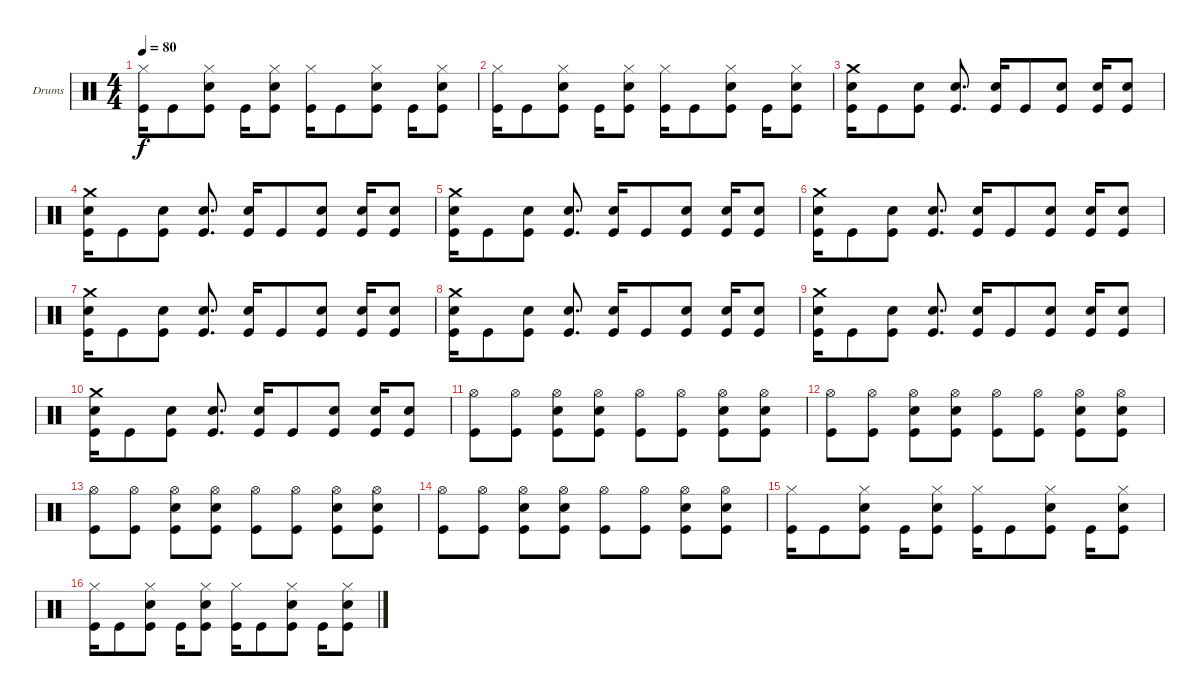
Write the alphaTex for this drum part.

\defaultSystemsLayout 4
\bracketExtendMode groupsimilarinstruments
\firstSystemTrackNameOrientation horizontal
\otherSystemsTrackNameOrientation horizontal
\track ("Drumkit" "Drums") {instrument percussion}
\staff {score}
\articulation defaults
\ts (4 4)
\tempo 80
\clef neutral
\scale
0.333333
\ks c
("Hi-Hat (closed)" "Kick (hit)").16{dy f} "Kick (hit)".8 ("Hi-Hat (closed)" "Snare (hit) 2" "Kick (hit)").8 "Kick (hit)".16 ("Hi-Hat (closed)" "Snare (hit) 2" "Kick (hit)").8 ("Hi-Hat (closed)" "Kick (hit)").16 "Kick (hit)".8 ("Hi-Hat (closed)" "Snare (hit) 2" "Kick (hit)").8 "Kick (hit)".16 ("Hi-Hat (closed)" "Snare (hit) 2" "Kick (hit)").8 |
\scale
0.333333 ("Hi-Hat (closed)" "Kick (hit)").16 "Kick (hit)".8 ("Hi-Hat (closed)" "Snare (hit) 2" "Kick (hit)").8 "Kick (hit)".16 ("Hi-Hat (closed)" "Snare (hit) 2" "Kick (hit)").8 ("Hi-Hat (closed)" "Kick (hit)").16 "Kick (hit)".8 ("Hi-Hat (closed)" "Snare (hit) 2" "Kick (hit)").8 "Kick (hit)".16 ("Hi-Hat (closed)" "Snare (hit) 2" "Kick (hit)").8 |
\scale
0.333333 ("Crash medium (hit)" "Snare (hit) 2" "Kick (hit)").16 "Kick (hit)".8 ("Snare (hit) 2" "Kick (hit)").8 ("Snare (hit) 2" "Kick (hit)").8{d} ("Snare (hit) 2" "Kick (hit)").16 "Kick (hit)".8 ("Snare (hit) 2" "Kick (hit)").8 ("Snare (hit) 2" "Kick (hit)").16 ("Snare (hit) 2" "Kick (hit)").8 |
\scale
0.333333 ("Crash medium (hit)" "Snare (hit) 2" "Kick (hit)").16 "Kick (hit)".8 ("Snare (hit) 2" "Kick (hit)").8 ("Snare (hit) 2" "Kick (hit)").8{d} ("Snare (hit) 2" "Kick (hit)").16 "Kick (hit)".8 ("Snare (hit) 2" "Kick (hit)").8 ("Snare (hit) 2" "Kick (hit)").16 ("Snare (hit) 2" "Kick (hit)").8 |
\scale
0.333333 ("Crash medium (hit)" "Snare (hit) 2" "Kick (hit)").16 "Kick (hit)".8 ("Snare (hit) 2" "Kick (hit)").8 ("Snare (hit) 2" "Kick (hit)").8{d} ("Snare (hit) 2" "Kick (hit)").16 "Kick (hit)".8 ("Snare (hit) 2" "Kick (hit)").8 ("Snare (hit) 2" "Kick (hit)").16 ("Snare (hit) 2" "Kick (hit)").8 |
\scale
0.333333 ("Crash medium (hit)" "Snare (hit) 2" "Kick (hit)").16 "Kick (hit)".8 ("Snare (hit) 2" "Kick (hit)").8 ("Snare (hit) 2" "Kick (hit)").8{d} ("Snare (hit) 2" "Kick (hit)").16 "Kick (hit)".8 ("Snare (hit) 2" "Kick (hit)").8 ("Snare (hit) 2" "Kick (hit)").16 ("Snare (hit) 2" "Kick (hit)").8 |
\scale
0.333333 ("Crash medium (hit)" "Snare (hit) 2" "Kick (hit)").16 "Kick (hit)".8 ("Snare (hit) 2" "Kick (hit)").8 ("Snare (hit) 2" "Kick (hit)").8{d} ("Snare (hit) 2" "Kick (hit)").16 "Kick (hit)".8 ("Snare (hit) 2" "Kick (hit)").8 ("Snare (hit) 2" "Kick (hit)").16 ("Snare (hit) 2" "Kick (hit)").8 |
\scale
0.333333 ("Crash medium (hit)" "Snare (hit) 2" "Kick (hit)").16 "Kick (hit)".8 ("Snare (hit) 2" "Kick (hit)").8 ("Snare (hit) 2" "Kick (hit)").8{d} ("Snare (hit) 2" "Kick (hit)").16 "Kick (hit)".8 ("Snare (hit) 2" "Kick (hit)").8 ("Snare (hit) 2" "Kick (hit)").16 ("Snare (hit) 2" "Kick (hit)").8 |
\scale
0.333333 ("Crash medium (hit)" "Snare (hit) 2" "Kick (hit)").16 "Kick (hit)".8 ("Snare (hit) 2" "Kick (hit)").8 ("Snare (hit) 2" "Kick (hit)").8{d} ("Snare (hit) 2" "Kick (hit)").16 "Kick (hit)".8 ("Snare (hit) 2" "Kick (hit)").8 ("Snare (hit) 2" "Kick (hit)").16 ("Snare (hit) 2" "Kick (hit)").8 |
\scale
0.333333 ("Crash medium (hit)" "Snare (hit) 2" "Kick (hit)").16 "Kick (hit)".8 ("Snare (hit) 2" "Kick (hit)").8 ("Snare (hit) 2" "Kick (hit)").8{d} ("Snare (hit) 2" "Kick (hit)").16 "Kick (hit)".8 ("Snare (hit) 2" "Kick (hit)").8 ("Snare (hit) 2" "Kick (hit)").16 ("Snare (hit) 2" "Kick (hit)").8 |
\scale
0.333333 ("Hi-Hat (open)" "Kick (hit)").8 ("Hi-Hat (open)" "Kick (hit)").8 ("Hi-Hat (open)" "Snare (hit) 2" "Kick (hit)").8 ("Hi-Hat (open)" "Snare (hit) 2" "Kick (hit)").8 ("Hi-Hat (open)" "Kick (hit)").8 ("Hi-Hat (open)" "Kick (hit)").8 ("Hi-Hat (open)" "Snare (hit) 2" "Kick (hit)").8 ("Hi-Hat (open)" "Snare (hit) 2" "Kick (hit)").8 |
\scale
0.333333 ("Hi-Hat (open)" "Kick (hit)").8 ("Hi-Hat (open)" "Kick (hit)").8 ("Hi-Hat (open)" "Snare (hit) 2" "Kick (hit)").8 ("Hi-Hat (open)" "Snare (hit) 2" "Kick (hit)").8 ("Hi-Hat (open)" "Kick (hit)").8 ("Hi-Hat (open)" "Kick (hit)").8 ("Hi-Hat (open)" "Snare (hit) 2" "Kick (hit)").8 ("Hi-Hat (open)" "Snare (hit) 2" "Kick (hit)").8 |
\scale
0.333333 ("Hi-Hat (open)" "Kick (hit)").8 ("Hi-Hat (open)" "Kick (hit)").8 ("Hi-Hat (open)" "Snare (hit) 2" "Kick (hit)").8 ("Hi-Hat (open)" "Snare (hit) 2" "Kick (hit)").8 ("Hi-Hat (open)" "Kick (hit)").8 ("Hi-Hat (open)" "Kick (hit)").8 ("Hi-Hat (open)" "Snare (hit) 2" "Kick (hit)").8 ("Hi-Hat (open)" "Snare (hit) 2" "Kick (hit)").8 |
\scale
0.333333 ("Hi-Hat (open)" "Kick (hit)").8 ("Hi-Hat (open)" "Kick (hit)").8 ("Hi-Hat (open)" "Snare (hit) 2" "Kick (hit)").8 ("Hi-Hat (open)" "Snare (hit) 2" "Kick (hit)").8 ("Hi-Hat (open)" "Kick (hit)").8 ("Hi-Hat (open)" "Kick (hit)").8 ("Hi-Hat (open)" "Snare (hit) 2" "Kick (hit)").8 ("Hi-Hat (open)" "Snare (hit) 2" "Kick (hit)").8 |
\scale
0.333333 ("Hi-Hat (closed)" "Kick (hit)").16 "Kick (hit)".8 ("Hi-Hat (closed)" "Snare (hit) 2" "Kick (hit)").8 "Kick (hit)".16 ("Hi-Hat (closed)" "Snare (hit) 2" "Kick (hit)").8 ("Hi-Hat (closed)" "Kick (hit)").16 "Kick (hit)".8 ("Hi-Hat (closed)" "Snare (hit) 2" "Kick (hit)").8 "Kick (hit)".16 ("Hi-Hat (closed)" "Snare (hit) 2" "Kick (hit)").8 |
\scale
0.333333 ("Hi-Hat (closed)" "Kick (hit)").16 "Kick (hit)".8 ("Hi-Hat (closed)" "Snare (hit) 2" "Kick (hit)").8 "Kick (hit)".16 ("Hi-Hat (closed)" "Snare (hit) 2" "Kick (hit)").8 ("Hi-Hat (closed)" "Kick (hit)").16 "Kick (hit)".8 ("Hi-Hat (closed)" "Snare (hit) 2" "Kick (hit)").8 "Kick (hit)".16 ("Hi-Hat (closed)" "Snare (hit) 2" "Kick (hit)").8
